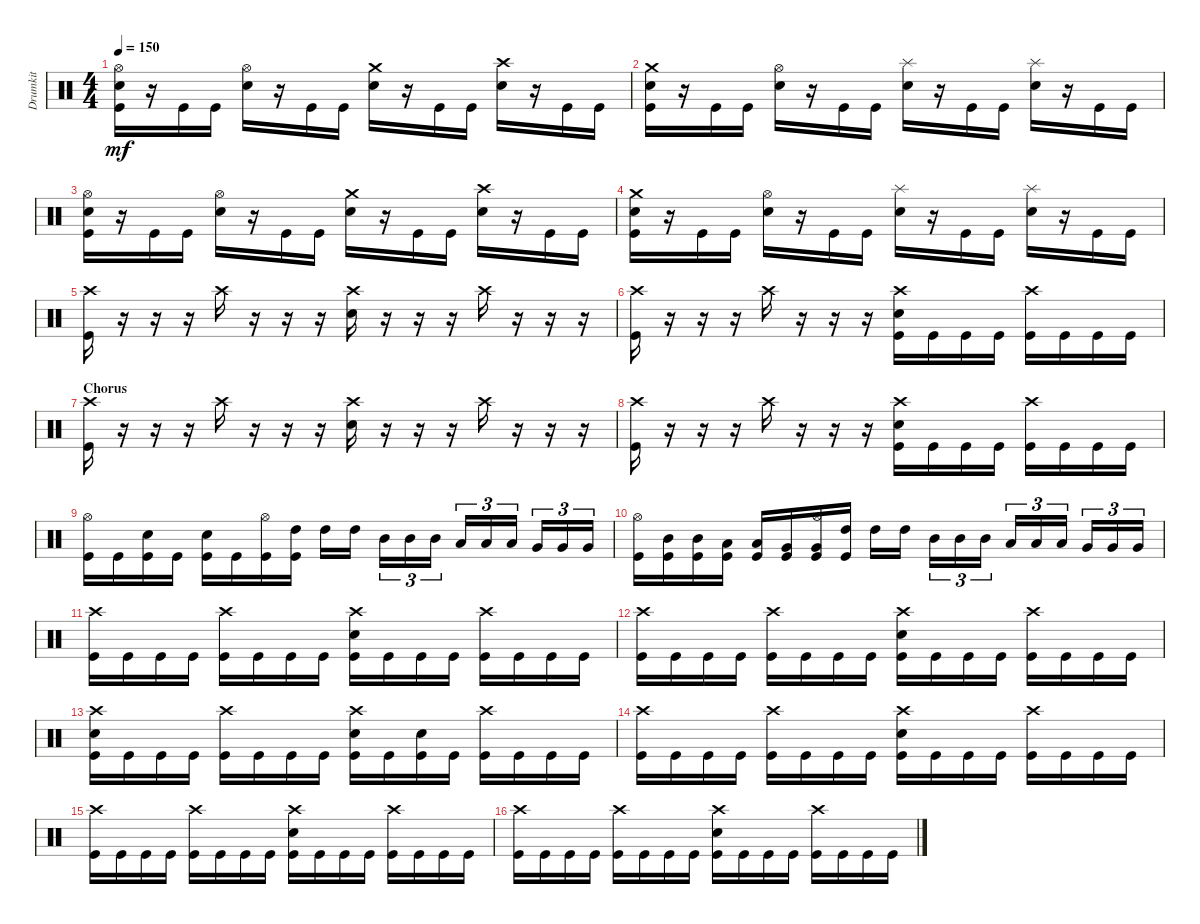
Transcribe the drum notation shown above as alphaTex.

\track ("Drumkit" "Drumkit") {instrument percussion}
\staff {score}
\articulation defaults
\ts (4 4)
\tempo 150
\clef neutral
\ks c
("Snare (hit) 2" "Kick (hit)" "Hi-Hat (open)").16{dy mf} r.16 "Kick (hit)".16 "Kick (hit)".16 ("Snare (hit) 2" "Hi-Hat (open)").16 r.16 "Kick (hit)".16 "Kick (hit)".16 ("Snare (hit) 2" "Crash medium (hit)").16 r.16 "Kick (hit)".16 "Kick (hit)".16 ("Snare (hit) 2" "Crash high (hit)").16 r.16 "Kick (hit)".16 "Kick (hit)".16 |
("Snare (hit) 2" "Kick (hit)" "Crash medium (hit)").16 r.16 "Kick (hit)".16 "Kick (hit)".16 ("Snare (hit) 2" "Hi-Hat (open)").16 r.16 "Kick (hit)".16 "Kick (hit)".16 ("Snare (hit) 2" "Splash (hit)").16 r.16 "Kick (hit)".16 "Kick (hit)".16 ("Snare (hit) 2" "Splash (hit)").16 r.16 "Kick (hit)".16 "Kick (hit)".16 |
("Snare (hit) 2" "Kick (hit)" "Hi-Hat (open)").16 r.16 "Kick (hit)".16 "Kick (hit)".16 ("Snare (hit) 2" "Hi-Hat (open)").16 r.16 "Kick (hit)".16 "Kick (hit)".16 ("Snare (hit) 2" "Crash medium (hit)").16 r.16 "Kick (hit)".16 "Kick (hit)".16 ("Snare (hit) 2" "Crash high (hit)").16 r.16 "Kick (hit)".16 "Kick (hit)".16 |
("Snare (hit) 2" "Kick (hit)" "Crash medium (hit)").16 r.16 "Kick (hit)".16 "Kick (hit)".16 ("Snare (hit) 2" "Hi-Hat (open)").16 r.16 "Kick (hit)".16 "Kick (hit)".16 ("Snare (hit) 2" "Splash (hit)").16 r.16 "Kick (hit)".16 "Kick (hit)".16 ("Snare (hit) 2" "Splash (hit)").16 r.16 "Kick (hit)".16 "Kick (hit)".16 |
("Kick (hit)" "Crash high (hit)").16 r.16 r.16 r.16 "Crash high (hit)".16 r.16 r.16 r.16 ("Crash high (hit)" "Snare (hit) 2").16 r.16 r.16 r.16 "Crash high (hit)".16 r.16 r.16 r.16 |
("Kick (hit)" "Crash high (hit)").16 r.16 r.16 r.16 "Crash high (hit)".16 r.16 r.16 r.16 ("Crash high (hit)" "Snare (hit) 2" "Kick (hit)").16 "Kick (hit)".16 "Kick (hit)".16 "Kick (hit)".16 ("Crash high (hit)" "Kick (hit)").16 "Kick (hit)".16 "Kick (hit)".16 "Kick (hit)".16 |
\section ("" "Chorus")
("Kick (hit)" "Crash high (hit)").16 r.16 r.16 r.16 "Crash high (hit)".16 r.16 r.16 r.16 ("Crash high (hit)" "Snare (hit) 2").16 r.16 r.16 r.16 "Crash high (hit)".16 r.16 r.16 r.16 |
("Kick (hit)" "Crash high (hit)").16 r.16 r.16 r.16 "Crash high (hit)".16 r.16 r.16 r.16 ("Crash high (hit)" "Snare (hit) 2" "Kick (hit)").16 "Kick (hit)".16 "Kick (hit)".16 "Kick (hit)".16 ("Crash high (hit)" "Kick (hit)").16 "Kick (hit)".16 "Kick (hit)".16 "Kick (hit)".16 |
("Hi-Hat (open)" "Kick (hit)").16 "Kick (hit)".16 ("Snare (hit) 2" "Kick (hit)").16 "Kick (hit)".16 ("Snare (hit) 2" "Kick (hit)").16 "Kick (hit)".16 ("Hi-Hat (open)" "Kick (hit)").16 ("High Tom (hit)" "Kick (hit)").16 "High Tom (hit)".16 "High Tom (hit)".16 "Mid Tom (hit)".16{tu (3 2)} "Mid Tom (hit)".16{tu (3 2)} "Mid Tom (hit)".16{tu (3 2)} "Low Tom (hit)".16{tu (3 2)} "Low Tom (hit)".16{tu (3 2)} "Low Tom (hit)".16{tu (3 2)} "Very Low Tom (hit)".16{tu (3 2)} "Very Low Tom (hit)".16{tu (3 2)} "Very Low Tom (hit)".16{tu (3 2)} |
("Hi-Hat (open)" "Kick (hit)").16 ("Kick (hit)" "Mid Tom (hit)").16 ("Kick (hit)" "Mid Tom (hit)").16 ("Kick (hit)" "Low Tom (hit)").16 ("Kick (hit)" "Low Tom (hit)").16 ("Kick (hit)" "Very Low Tom (hit)").16 ("Hi-Hat (open)" "Kick (hit)" "Very Low Tom (hit)").16 ("High Tom (hit)" "Kick (hit)").16 "High Tom (hit)".16 "High Tom (hit)".16 "Mid Tom (hit)".16{tu (3 2)} "Mid Tom (hit)".16{tu (3 2)} "Mid Tom (hit)".16{tu (3 2)} "Low Tom (hit)".16{tu (3 2)} "Low Tom (hit)".16{tu (3 2)} "Low Tom (hit)".16{tu (3 2)} "Very Low Tom (hit)".16{tu (3 2)} "Very Low Tom (hit)".16{tu (3 2)} "Very Low Tom (hit)".16{tu (3 2)} |
("Crash high (hit)" "Kick (hit)").16 "Kick (hit)".16 "Kick (hit)".16 "Kick (hit)".16 ("Crash high (hit)" "Kick (hit)").16 "Kick (hit)".16 "Kick (hit)".16 "Kick (hit)".16 ("Crash high (hit)" "Snare (hit) 2" "Kick (hit)").16 "Kick (hit)".16 "Kick (hit)".16 "Kick (hit)".16 ("Crash high (hit)" "Kick (hit)").16 "Kick (hit)".16 "Kick (hit)".16 "Kick (hit)".16 |
("Crash high (hit)" "Kick (hit)").16 "Kick (hit)".16 "Kick (hit)".16 "Kick (hit)".16 ("Crash high (hit)" "Kick (hit)").16 "Kick (hit)".16 "Kick (hit)".16 "Kick (hit)".16 ("Crash high (hit)" "Snare (hit) 2" "Kick (hit)").16 "Kick (hit)".16 "Kick (hit)".16 "Kick (hit)".16 ("Crash high (hit)" "Kick (hit)").16 "Kick (hit)".16 "Kick (hit)".16 "Kick (hit)".16 |
("Crash high (hit)" "Snare (hit) 2" "Kick (hit)").16 "Kick (hit)".16 "Kick (hit)".16 "Kick (hit)".16 ("Crash high (hit)" "Kick (hit)").16 "Kick (hit)".16 "Kick (hit)".16 "Kick (hit)".16 ("Crash high (hit)" "Snare (hit) 2" "Kick (hit)").16 "Kick (hit)".16 ("Kick (hit)" "Snare (hit) 2").16 "Kick (hit)".16 ("Crash high (hit)" "Kick (hit)").16 "Kick (hit)".16 "Kick (hit)".16 "Kick (hit)".16 |
("Crash high (hit)" "Kick (hit)").16 "Kick (hit)".16 "Kick (hit)".16 "Kick (hit)".16 ("Crash high (hit)" "Kick (hit)").16 "Kick (hit)".16 "Kick (hit)".16 "Kick (hit)".16 ("Crash high (hit)" "Snare (hit) 2" "Kick (hit)").16 "Kick (hit)".16 "Kick (hit)".16 "Kick (hit)".16 ("Crash high (hit)" "Kick (hit)").16 "Kick (hit)".16 "Kick (hit)".16 "Kick (hit)".16 |
("Crash high (hit)" "Kick (hit)").16 "Kick (hit)".16 "Kick (hit)".16 "Kick (hit)".16 ("Crash high (hit)" "Kick (hit)").16 "Kick (hit)".16 "Kick (hit)".16 "Kick (hit)".16 ("Crash high (hit)" "Snare (hit) 2" "Kick (hit)").16 "Kick (hit)".16 "Kick (hit)".16 "Kick (hit)".16 ("Crash high (hit)" "Kick (hit)").16 "Kick (hit)".16 "Kick (hit)".16 "Kick (hit)".16 |
("Crash high (hit)" "Kick (hit)").16 "Kick (hit)".16 "Kick (hit)".16 "Kick (hit)".16 ("Crash high (hit)" "Kick (hit)").16 "Kick (hit)".16 "Kick (hit)".16 "Kick (hit)".16 ("Crash high (hit)" "Snare (hit) 2" "Kick (hit)").16 "Kick (hit)".16 "Kick (hit)".16 "Kick (hit)".16 ("Crash high (hit)" "Kick (hit)").16 "Kick (hit)".16 "Kick (hit)".16 "Kick (hit)".16
